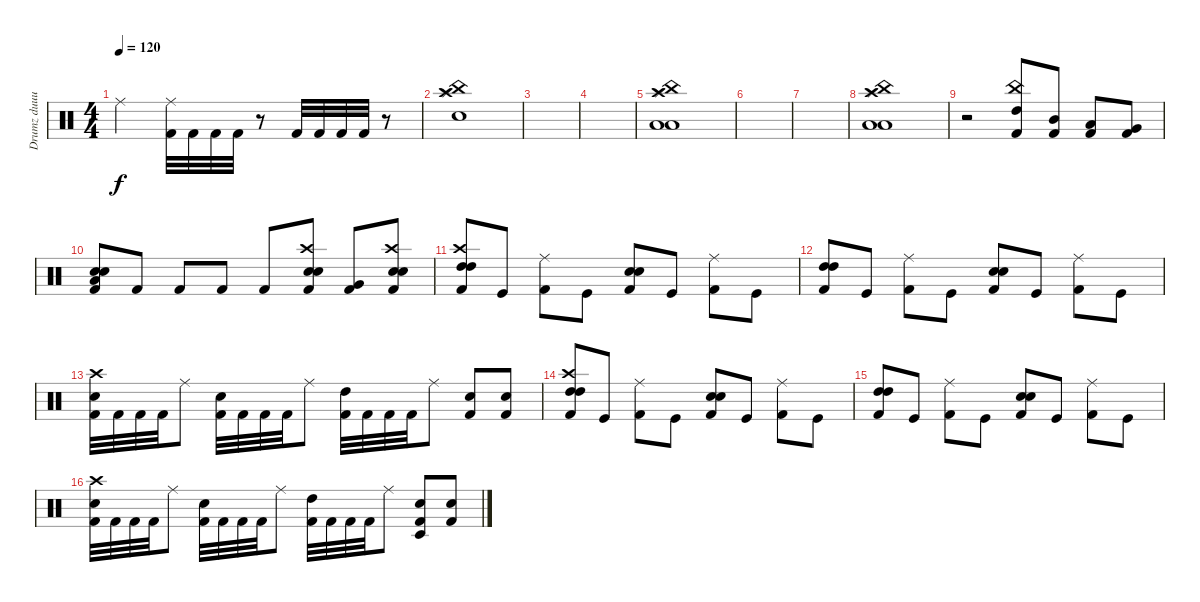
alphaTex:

\track ("Drumz duuuuude" "Drumz duuu") {instrument percussion}
\staff {score}
\articulation defaults
\ts (4 4)
\tempo 120
\clef neutral
\ks c "Ride (middle)".2{dy f}
("Ride (middle)" "Kick (hit) 2").32 "Kick (hit) 2".32 "Kick (hit) 2".32 "Kick (hit) 2".32 r.8 "Kick (hit) 2".32 "Kick (hit) 2".32 "Kick (hit) 2".32 "Kick (hit) 2".32 r.8 |
("Crash high (hit)" "China (hit)" "Splash (hit)" "Snare (hit) 2").1 |
|
|
("Crash high (hit)" "China (hit)" "Splash (hit)" "Low Floor Tom (hit)" "Low Floor Tom (hit)").1 |
|
|
("Crash high (hit)" "China (hit)" "Splash (hit)" "Low Floor Tom (hit)" "Low Floor Tom (hit)").1 |
r.2 ("China (hit)" "Kick (hit) 2" "High Tom (hit)").8 ("Kick (hit) 2" "Mid Tom (hit)").8 ("Kick (hit) 2" "Low Tom (hit)").8 ("Kick (hit) 2" "Very Low Tom (hit)").8 |
("Electric Snare (hit)" "Kick (hit) 2" "Snare (hit) 2" "Low Floor Tom (hit)").8 "Kick (hit) 2".8 "Kick (hit) 2".8 "Kick (hit) 2".8 "Kick (hit) 2".8 ("Crash high (hit)" "Kick (hit) 2" "Electric Snare (hit)" "Snare (hit) 2").8 ("Kick (hit) 2" "Very Low Tom (hit)").8 ("Crash high (hit)" "Kick (hit) 2" "Electric Snare (hit)" "Snare (hit) 2").8 |
("Crash high (hit)" "Kick (hit) 2" "High Tom (hit)" "High Tom (hit)").8 "Kick (hit)".8 ("Ride (middle)" "Kick (hit) 2").8 "Kick (hit)".8 ("Kick (hit) 2" "Snare (hit) 2" "Electric Snare (hit)").8 "Kick (hit)".8 ("Ride (middle)" "Kick (hit) 2").8 "Kick (hit)".8 |
("Kick (hit) 2" "High Tom (hit)" "High Tom (hit)").8 "Kick (hit)".8 ("Ride (middle)" "Kick (hit) 2").8 "Kick (hit)".8 ("Kick (hit) 2" "Snare (hit) 2" "Electric Snare (hit)").8 "Kick (hit)".8 ("Ride (middle)" "Kick (hit) 2").8 "Kick (hit)".8 |
("Crash high (hit)" "Kick (hit) 2" "Electric Snare (hit)").32 "Kick (hit) 2".32 "Kick (hit) 2".32 "Kick (hit) 2".32 "Ride (middle)".8 ("Kick (hit) 2" "Snare (hit) 2").32 "Kick (hit) 2".32 "Kick (hit) 2".32 "Kick (hit) 2".32 "Ride (middle)".8 ("Kick (hit) 2" "High Tom (hit)").32 "Kick (hit) 2".32 "Kick (hit) 2".32 "Kick (hit) 2".32 "Ride (middle)".8 ("Kick (hit) 2" "Electric Snare (hit)").8 ("Kick (hit) 2" "Electric Snare (hit)").8 |
("Crash high (hit)" "Kick (hit) 2" "High Tom (hit)" "High Tom (hit)").8 "Kick (hit)".8 ("Ride (middle)" "Kick (hit) 2").8 "Kick (hit)".8 ("Kick (hit) 2" "Snare (hit) 2" "Electric Snare (hit)").8 "Kick (hit)".8 ("Ride (middle)" "Kick (hit) 2").8 "Kick (hit)".8 |
("Kick (hit) 2" "High Tom (hit)" "High Tom (hit)").8 "Kick (hit)".8 ("Ride (middle)" "Kick (hit) 2").8 "Kick (hit)".8 ("Kick (hit) 2" "Snare (hit) 2" "Electric Snare (hit)").8 "Kick (hit)".8 ("Ride (middle)" "Kick (hit) 2").8 "Kick (hit)".8 |
("Crash high (hit)" "Kick (hit) 2" "Electric Snare (hit)").32 "Kick (hit) 2".32 "Kick (hit) 2".32 "Kick (hit) 2".32 "Ride (middle)".8 ("Kick (hit) 2" "Snare (hit) 2").32 "Kick (hit) 2".32 "Kick (hit) 2".32 "Kick (hit) 2".32 "Ride (middle)".8 ("Kick (hit) 2" "High Tom (hit)").32 "Kick (hit) 2".32 "Kick (hit) 2".32 "Kick (hit) 2".32 "Ride (middle)".8 ("Timbale low (hit)" "Kick (hit) 2" "Electric Snare (hit)").8 ("Kick (hit) 2" "Electric Snare (hit)").8
